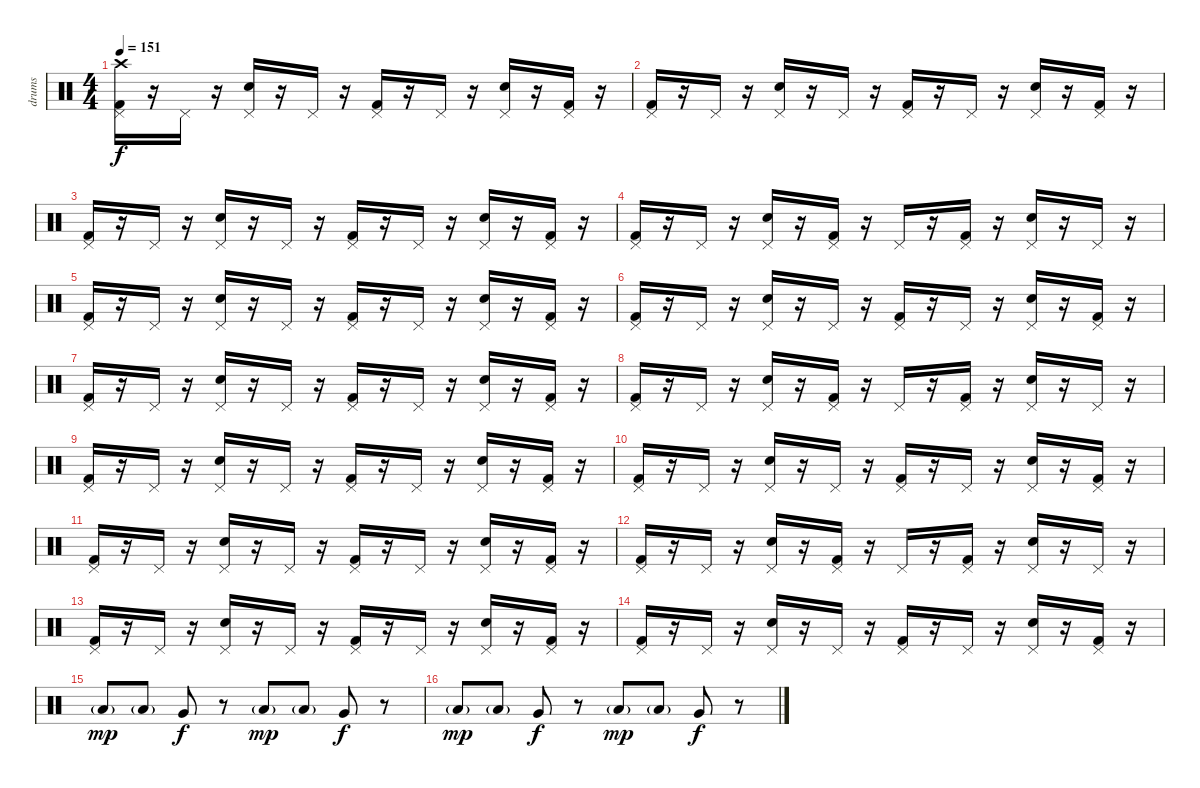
\track ("drums" "drums") {instrument percussion}
\staff {score}
\articulation defaults
\ts (4 4)
\tempo 151
\clef neutral
\ks c
("Kick (hit) 2" "Pedal Hi-Hat (hit)" "Crash high (hit)").16{dy f} r.16 "Pedal Hi-Hat (hit)".16 r.16 ("Electric Snare (hit)" "Pedal Hi-Hat (hit)").16 r.16 "Pedal Hi-Hat (hit)".16 r.16 ("Kick (hit) 2" "Pedal Hi-Hat (hit)").16 r.16 "Pedal Hi-Hat (hit)".16 r.16 ("Electric Snare (hit)" "Pedal Hi-Hat (hit)").16 r.16 ("Kick (hit) 2" "Pedal Hi-Hat (hit)").16 r.16 |
("Kick (hit) 2" "Pedal Hi-Hat (hit)").16 r.16 "Pedal Hi-Hat (hit)".16 r.16 ("Electric Snare (hit)" "Pedal Hi-Hat (hit)").16 r.16 "Pedal Hi-Hat (hit)".16 r.16 ("Kick (hit) 2" "Pedal Hi-Hat (hit)").16 r.16 "Pedal Hi-Hat (hit)".16 r.16 ("Electric Snare (hit)" "Pedal Hi-Hat (hit)").16 r.16 ("Kick (hit) 2" "Pedal Hi-Hat (hit)").16 r.16 |
("Kick (hit) 2" "Pedal Hi-Hat (hit)").16 r.16 "Pedal Hi-Hat (hit)".16 r.16 ("Electric Snare (hit)" "Pedal Hi-Hat (hit)").16 r.16 "Pedal Hi-Hat (hit)".16 r.16 ("Kick (hit) 2" "Pedal Hi-Hat (hit)").16 r.16 "Pedal Hi-Hat (hit)".16 r.16 ("Electric Snare (hit)" "Pedal Hi-Hat (hit)").16 r.16 ("Kick (hit) 2" "Pedal Hi-Hat (hit)").16 r.16 |
("Kick (hit) 2" "Pedal Hi-Hat (hit)").16 r.16 "Pedal Hi-Hat (hit)".16 r.16 ("Electric Snare (hit)" "Pedal Hi-Hat (hit)").16 r.16 ("Kick (hit) 2" "Pedal Hi-Hat (hit)").16 r.16 "Pedal Hi-Hat (hit)".16 r.16 ("Kick (hit) 2" "Pedal Hi-Hat (hit)").16 r.16 ("Electric Snare (hit)" "Pedal Hi-Hat (hit)").16 r.16 "Pedal Hi-Hat (hit)".16 r.16 |
("Kick (hit) 2" "Pedal Hi-Hat (hit)").16 r.16 "Pedal Hi-Hat (hit)".16 r.16 ("Electric Snare (hit)" "Pedal Hi-Hat (hit)").16 r.16 "Pedal Hi-Hat (hit)".16 r.16 ("Kick (hit) 2" "Pedal Hi-Hat (hit)").16 r.16 "Pedal Hi-Hat (hit)".16 r.16 ("Electric Snare (hit)" "Pedal Hi-Hat (hit)").16 r.16 ("Kick (hit) 2" "Pedal Hi-Hat (hit)").16 r.16 |
("Kick (hit) 2" "Pedal Hi-Hat (hit)").16 r.16 "Pedal Hi-Hat (hit)".16 r.16 ("Electric Snare (hit)" "Pedal Hi-Hat (hit)").16 r.16 "Pedal Hi-Hat (hit)".16 r.16 ("Kick (hit) 2" "Pedal Hi-Hat (hit)").16 r.16 "Pedal Hi-Hat (hit)".16 r.16 ("Electric Snare (hit)" "Pedal Hi-Hat (hit)").16 r.16 ("Kick (hit) 2" "Pedal Hi-Hat (hit)").16 r.16 |
("Kick (hit) 2" "Pedal Hi-Hat (hit)").16 r.16 "Pedal Hi-Hat (hit)".16 r.16 ("Electric Snare (hit)" "Pedal Hi-Hat (hit)").16 r.16 "Pedal Hi-Hat (hit)".16 r.16 ("Kick (hit) 2" "Pedal Hi-Hat (hit)").16 r.16 "Pedal Hi-Hat (hit)".16 r.16 ("Electric Snare (hit)" "Pedal Hi-Hat (hit)").16 r.16 ("Kick (hit) 2" "Pedal Hi-Hat (hit)").16 r.16 |
("Kick (hit) 2" "Pedal Hi-Hat (hit)").16 r.16 "Pedal Hi-Hat (hit)".16 r.16 ("Electric Snare (hit)" "Pedal Hi-Hat (hit)").16 r.16 ("Kick (hit) 2" "Pedal Hi-Hat (hit)").16 r.16 "Pedal Hi-Hat (hit)".16 r.16 ("Kick (hit) 2" "Pedal Hi-Hat (hit)").16 r.16 ("Electric Snare (hit)" "Pedal Hi-Hat (hit)").16 r.16 "Pedal Hi-Hat (hit)".16 r.16 |
("Kick (hit) 2" "Pedal Hi-Hat (hit)").16 r.16 "Pedal Hi-Hat (hit)".16 r.16 ("Electric Snare (hit)" "Pedal Hi-Hat (hit)").16 r.16 "Pedal Hi-Hat (hit)".16 r.16 ("Kick (hit) 2" "Pedal Hi-Hat (hit)").16 r.16 "Pedal Hi-Hat (hit)".16 r.16 ("Electric Snare (hit)" "Pedal Hi-Hat (hit)").16 r.16 ("Kick (hit) 2" "Pedal Hi-Hat (hit)").16 r.16 |
("Kick (hit) 2" "Pedal Hi-Hat (hit)").16 r.16 "Pedal Hi-Hat (hit)".16 r.16 ("Electric Snare (hit)" "Pedal Hi-Hat (hit)").16 r.16 "Pedal Hi-Hat (hit)".16 r.16 ("Kick (hit) 2" "Pedal Hi-Hat (hit)").16 r.16 "Pedal Hi-Hat (hit)".16 r.16 ("Electric Snare (hit)" "Pedal Hi-Hat (hit)").16 r.16 ("Kick (hit) 2" "Pedal Hi-Hat (hit)").16 r.16 |
("Kick (hit) 2" "Pedal Hi-Hat (hit)").16 r.16 "Pedal Hi-Hat (hit)".16 r.16 ("Electric Snare (hit)" "Pedal Hi-Hat (hit)").16 r.16 "Pedal Hi-Hat (hit)".16 r.16 ("Kick (hit) 2" "Pedal Hi-Hat (hit)").16 r.16 "Pedal Hi-Hat (hit)".16 r.16 ("Electric Snare (hit)" "Pedal Hi-Hat (hit)").16 r.16 ("Kick (hit) 2" "Pedal Hi-Hat (hit)").16 r.16 |
("Kick (hit) 2" "Pedal Hi-Hat (hit)").16 r.16 "Pedal Hi-Hat (hit)".16 r.16 ("Electric Snare (hit)" "Pedal Hi-Hat (hit)").16 r.16 ("Kick (hit) 2" "Pedal Hi-Hat (hit)").16 r.16 "Pedal Hi-Hat (hit)".16 r.16 ("Kick (hit) 2" "Pedal Hi-Hat (hit)").16 r.16 ("Electric Snare (hit)" "Pedal Hi-Hat (hit)").16 r.16 "Pedal Hi-Hat (hit)".16 r.16 |
("Kick (hit) 2" "Pedal Hi-Hat (hit)").16 r.16 "Pedal Hi-Hat (hit)".16 r.16 ("Electric Snare (hit)" "Pedal Hi-Hat (hit)").16 r.16 "Pedal Hi-Hat (hit)".16 r.16 ("Kick (hit) 2" "Pedal Hi-Hat (hit)").16 r.16 "Pedal Hi-Hat (hit)".16 r.16 ("Electric Snare (hit)" "Pedal Hi-Hat (hit)").16 r.16 ("Kick (hit) 2" "Pedal Hi-Hat (hit)").16 r.16 |
("Kick (hit) 2" "Pedal Hi-Hat (hit)").16 r.16 "Pedal Hi-Hat (hit)".16 r.16 ("Electric Snare (hit)" "Pedal Hi-Hat (hit)").16 r.16 "Pedal Hi-Hat (hit)".16 r.16 ("Kick (hit) 2" "Pedal Hi-Hat (hit)").16 r.16 "Pedal Hi-Hat (hit)".16 r.16 ("Electric Snare (hit)" "Pedal Hi-Hat (hit)").16 r.16 ("Kick (hit) 2" "Pedal Hi-Hat (hit)").16 r.16 |
"Low Tom (hit)"{g}.8{dy mp} "Low Tom (hit)"{g}.8 "Very Low Tom (hit)".8{dy f} r.8 "Low Tom (hit)"{g}.8{dy mp} "Low Tom (hit)"{g}.8 "Very Low Tom (hit)".8{dy f} r.8 |
"Low Tom (hit)"{g}.8{dy mp} "Low Tom (hit)"{g}.8 "Very Low Tom (hit)".8{dy f} r.8 "Low Tom (hit)"{g}.8{dy mp} "Low Tom (hit)"{g}.8 "Very Low Tom (hit)".8{dy f} r.8
